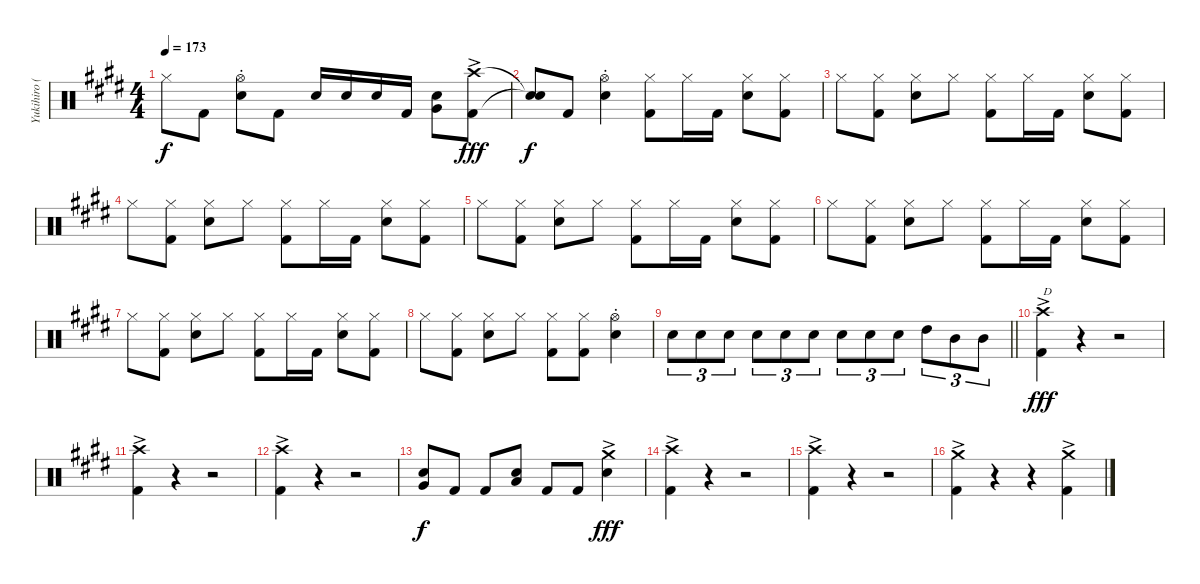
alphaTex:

\track ("Yukihiro (Drums)" "Yukihiro (") {instrument percussion}
\staff {score}
\articulation defaults
\ts (4 4)
\tempo 173
\clef neutral
\ks e "Hi-Hat (closed)".8{dy f} "Kick (hit) 2".8
("Hi-Hat (open)"{st} "Electric Snare (hit)").8 "Kick (hit) 2".8 "Electric Snare (hit)".16 "Electric Snare (hit)".16 "Electric Snare (hit)".16 "Kick (hit) 2".16 ("Electric Snare (hit)" "Very Low Tom (hit)").8 ("Crash high (hit)"{ac} "Kick (hit) 2").8{dy fff} |
("Snare (hit)"{t} "Snare (hit)"{t}).8{dy f} "Kick (hit) 2".8 ("Hi-Hat (open)"{st} "Electric Snare (hit)").4 ("Hi-Hat (closed)" "Kick (hit) 2").8 "Hi-Hat (closed)".16 "Kick (hit) 2".16 ("Hi-Hat (closed)" "Electric Snare (hit)").8 ("Hi-Hat (closed)" "Kick (hit) 2").8 |
"Hi-Hat (closed)".8 ("Hi-Hat (closed)" "Kick (hit) 2").8 ("Hi-Hat (closed)" "Electric Snare (hit)").8 "Hi-Hat (closed)".8 ("Hi-Hat (closed)" "Kick (hit) 2").8 "Hi-Hat (closed)".16 "Kick (hit) 2".16 ("Hi-Hat (closed)" "Electric Snare (hit)").8 ("Hi-Hat (closed)" "Kick (hit) 2").8 |
"Hi-Hat (closed)".8 ("Hi-Hat (closed)" "Kick (hit) 2").8 ("Hi-Hat (closed)" "Electric Snare (hit)").8 "Hi-Hat (closed)".8 ("Hi-Hat (closed)" "Kick (hit) 2").8 "Hi-Hat (closed)".16 "Kick (hit) 2".16 ("Hi-Hat (closed)" "Electric Snare (hit)").8 ("Hi-Hat (closed)" "Kick (hit) 2").8 |
"Hi-Hat (closed)".8 ("Hi-Hat (closed)" "Kick (hit) 2").8 ("Hi-Hat (closed)" "Electric Snare (hit)").8 "Hi-Hat (closed)".8 ("Hi-Hat (closed)" "Kick (hit) 2").8 "Hi-Hat (closed)".16 "Kick (hit) 2".16 ("Hi-Hat (closed)" "Electric Snare (hit)").8 ("Hi-Hat (closed)" "Kick (hit) 2").8 |
"Hi-Hat (closed)".8 ("Hi-Hat (closed)" "Kick (hit) 2").8 ("Hi-Hat (closed)" "Electric Snare (hit)").8 "Hi-Hat (closed)".8 ("Hi-Hat (closed)" "Kick (hit) 2").8 "Hi-Hat (closed)".16 "Kick (hit) 2".16 ("Hi-Hat (closed)" "Electric Snare (hit)").8 ("Hi-Hat (closed)" "Kick (hit) 2").8 |
"Hi-Hat (closed)".8 ("Hi-Hat (closed)" "Kick (hit) 2").8 ("Hi-Hat (closed)" "Electric Snare (hit)").8 "Hi-Hat (closed)".8 ("Hi-Hat (closed)" "Kick (hit) 2").8 "Hi-Hat (closed)".16 "Kick (hit) 2".16 ("Hi-Hat (closed)" "Electric Snare (hit)").8 ("Hi-Hat (closed)" "Kick (hit) 2").8 |
"Hi-Hat (closed)".8 ("Hi-Hat (closed)" "Kick (hit) 2").8 ("Hi-Hat (closed)" "Electric Snare (hit)").8 "Hi-Hat (closed)".8 ("Hi-Hat (closed)" "Kick (hit) 2").8 ("Hi-Hat (closed)" "Kick (hit) 2").8 ("Hi-Hat (open)"{st} "Electric Snare (hit)").4 |
\barLineRight lightlight "Electric Snare (hit)".8{tu (3 2)} "Electric Snare (hit)".8{tu (3 2)} "Electric Snare (hit)".8{tu (3 2)} "Electric Snare (hit)".8{tu (3 2)} "Electric Snare (hit)".8{tu (3 2)} "Electric Snare (hit)".8{tu (3 2)} "Electric Snare (hit)".8{tu (3 2)} "Electric Snare (hit)".8{tu (3 2)} "Electric Snare (hit)".8{tu (3 2)} "High Tom (hit)".8{tu (3 2)} "Mid Tom (hit)".8{tu (3 2)} "Mid Tom (hit)".8{tu (3 2)}
|
("Crash high (hit)"{ac} "Kick (hit) 2").4{txt "D" dy fff} r.4 r.2 |
("Crash high (hit)"{ac} "Kick (hit) 2").4 r.4 r.2 |
("Crash high (hit)"{ac} "Kick (hit) 2").4 r.4 r.2 |
("Electric Snare (hit)" "Very Low Tom (hit)").8{dy f} "Kick (hit) 2".8 "Kick (hit) 2".8 ("Electric Snare (hit)" "Low Tom (hit)").8 "Kick (hit) 2".8 "Kick (hit) 2".8 ("Crash medium (hit)"{ac} "Electric Snare (hit)").4{dy fff} |
("Crash high (hit)"{ac} "Kick (hit) 2").4 r.4 r.2 |
("Crash high (hit)"{ac} "Kick (hit) 2").4 r.4 r.2 |
("Crash medium (hit)"{ac} "Kick (hit) 2").4 r.4 r.4 ("Crash medium (hit)"{ac} "Kick (hit) 2").4
